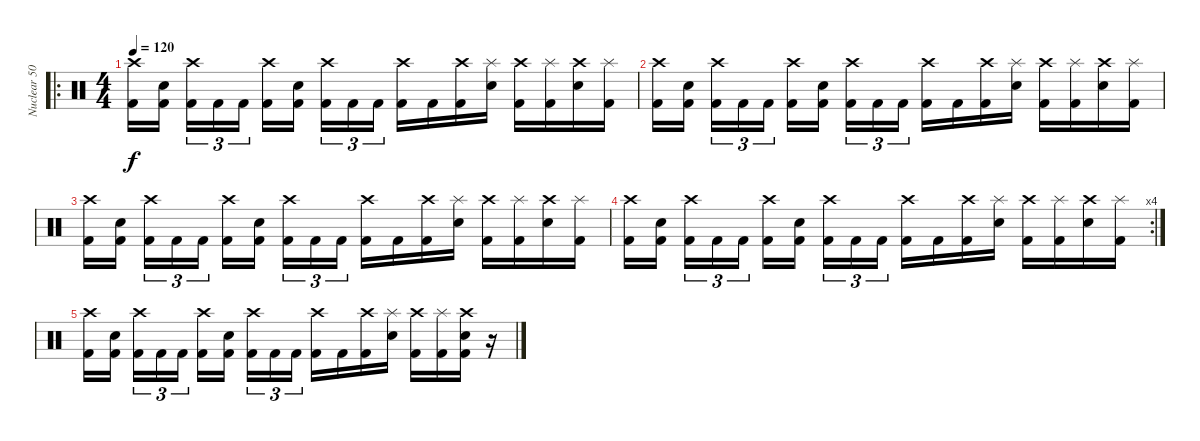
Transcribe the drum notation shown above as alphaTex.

\track ("Nuclear 5000" "Nuclear 50") {instrument percussion}
\staff {score}
\articulation defaults
\ro
\ts (4 4)
\tempo 120
\clef neutral
\ks c
("Crash high (hit)" "Kick (hit) 2").16{dy f} ("Electric Snare (hit)" "Kick (hit) 2").16{beam splitsecondary} ("Crash high (hit)" "Kick (hit) 2").16{tu (3 2)} "Kick (hit) 2".16{tu (3 2)} "Kick (hit) 2".16{tu (3 2)} ("Crash high (hit)" "Kick (hit) 2").16 ("Electric Snare (hit)" "Kick (hit) 2").16{beam splitsecondary} ("Crash high (hit)" "Kick (hit) 2").16{tu (3 2)} "Kick (hit) 2".16{tu (3 2)} "Kick (hit) 2".16{tu (3 2)} ("Crash high (hit)" "Kick (hit) 2").16 "Kick (hit) 2".16 ("Crash high (hit)" "Kick (hit) 2").16 ("Splash (hit)" "Snare (hit) 2").16 ("Crash high (hit)" "Kick (hit) 2").16 ("Splash (hit)" "Kick (hit) 2").16 ("Crash high (hit)" "Snare (hit) 2").16 ("Splash (hit)" "Kick (hit) 2").16 |
("Crash high (hit)" "Kick (hit) 2").16 ("Electric Snare (hit)" "Kick (hit) 2").16{beam splitsecondary} ("Crash high (hit)" "Kick (hit) 2").16{tu (3 2)} "Kick (hit) 2".16{tu (3 2)} "Kick (hit) 2".16{tu (3 2)} ("Crash high (hit)" "Kick (hit) 2").16 ("Electric Snare (hit)" "Kick (hit) 2").16{beam splitsecondary} ("Crash high (hit)" "Kick (hit) 2").16{tu (3 2)} "Kick (hit) 2".16{tu (3 2)} "Kick (hit) 2".16{tu (3 2)} ("Crash high (hit)" "Kick (hit) 2").16 "Kick (hit) 2".16 ("Crash high (hit)" "Kick (hit) 2").16 ("Splash (hit)" "Snare (hit) 2").16 ("Crash high (hit)" "Kick (hit) 2").16 ("Splash (hit)" "Kick (hit) 2").16 ("Crash high (hit)" "Snare (hit) 2").16 ("Splash (hit)" "Kick (hit) 2").16 |
("Crash high (hit)" "Kick (hit) 2").16 ("Electric Snare (hit)" "Kick (hit) 2").16{beam splitsecondary} ("Crash high (hit)" "Kick (hit) 2").16{tu (3 2)} "Kick (hit) 2".16{tu (3 2)} "Kick (hit) 2".16{tu (3 2)} ("Crash high (hit)" "Kick (hit) 2").16 ("Electric Snare (hit)" "Kick (hit) 2").16{beam splitsecondary} ("Crash high (hit)" "Kick (hit) 2").16{tu (3 2)} "Kick (hit) 2".16{tu (3 2)} "Kick (hit) 2".16{tu (3 2)} ("Crash high (hit)" "Kick (hit) 2").16 "Kick (hit) 2".16 ("Crash high (hit)" "Kick (hit) 2").16 ("Splash (hit)" "Snare (hit) 2").16 ("Crash high (hit)" "Kick (hit) 2").16 ("Splash (hit)" "Kick (hit) 2").16 ("Crash high (hit)" "Snare (hit) 2").16 ("Splash (hit)" "Kick (hit) 2").16 |
\rc 4
("Crash high (hit)" "Kick (hit) 2").16 ("Electric Snare (hit)" "Kick (hit) 2").16{beam splitsecondary} ("Crash high (hit)" "Kick (hit) 2").16{tu (3 2)} "Kick (hit) 2".16{tu (3 2)} "Kick (hit) 2".16{tu (3 2)} ("Crash high (hit)" "Kick (hit) 2").16 ("Electric Snare (hit)" "Kick (hit) 2").16{beam splitsecondary} ("Crash high (hit)" "Kick (hit) 2").16{tu (3 2)} "Kick (hit) 2".16{tu (3 2)} "Kick (hit) 2".16{tu (3 2)} ("Crash high (hit)" "Kick (hit) 2").16 "Kick (hit) 2".16 ("Crash high (hit)" "Kick (hit) 2").16 ("Splash (hit)" "Snare (hit) 2").16 ("Crash high (hit)" "Kick (hit) 2").16 ("Splash (hit)" "Kick (hit) 2").16 ("Crash high (hit)" "Snare (hit) 2").16 ("Splash (hit)" "Kick (hit) 2").16 |
("Crash high (hit)" "Kick (hit) 2").16 ("Electric Snare (hit)" "Kick (hit) 2").16{beam splitsecondary} ("Crash high (hit)" "Kick (hit) 2").16{tu (3 2)} "Kick (hit) 2".16{tu (3 2)} "Kick (hit) 2".16{tu (3 2)} ("Crash high (hit)" "Kick (hit) 2").16 ("Electric Snare (hit)" "Kick (hit) 2").16{beam splitsecondary} ("Crash high (hit)" "Kick (hit) 2").16{tu (3 2)} "Kick (hit) 2".16{tu (3 2)} "Kick (hit) 2".16{tu (3 2)} ("Crash high (hit)" "Kick (hit) 2").16 "Kick (hit) 2".16 ("Crash high (hit)" "Kick (hit) 2").16 ("Splash (hit)" "Snare (hit) 2").16 ("Crash high (hit)" "Kick (hit) 2").16 ("Splash (hit)" "Kick (hit) 2").16 ("Crash high (hit)" "Snare (hit) 2" "Kick (hit) 2").16 r.16
